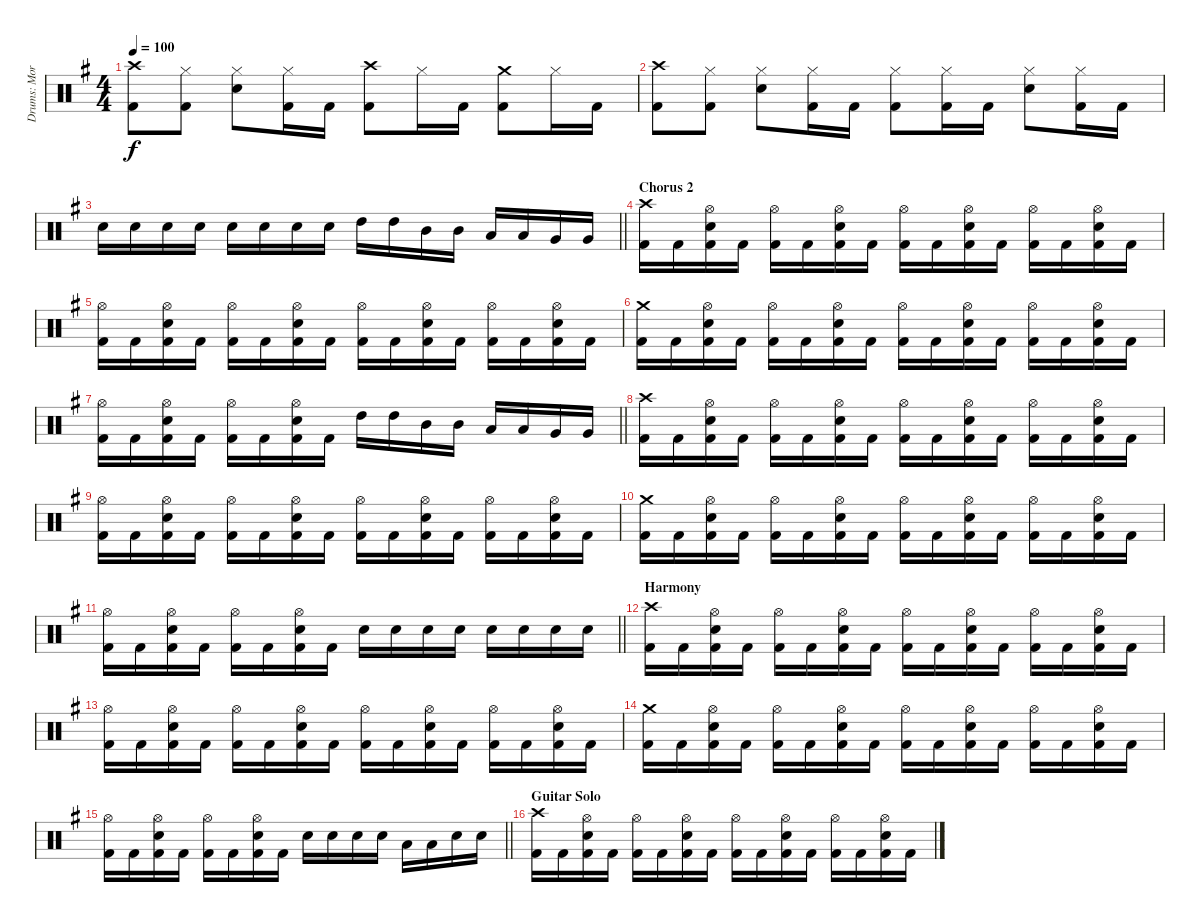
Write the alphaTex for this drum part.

\track ("Drums: Morten Færøvig" "Drums: Mor") {instrument percussion}
\staff {score}
\articulation defaults
\ts (4 4)
\tempo 100
\clef neutral
\ks eminor
("Crash high (hit)" "Kick (hit) 2").8{dy f} ("Hi-Hat (closed)" "Kick (hit) 2").8 ("Hi-Hat (closed)" "Electric Snare (hit)").8 ("Hi-Hat (closed)" "Kick (hit) 2").16 "Kick (hit) 2".16 ("Crash high (hit)" "Kick (hit) 2").8 "Hi-Hat (closed)".16 "Kick (hit) 2".16 ("Crash medium (hit)" "Kick (hit) 2").8 "Hi-Hat (closed)".16 "Kick (hit) 2".16 |
("Crash high (hit)" "Kick (hit) 2").8 ("Hi-Hat (closed)" "Kick (hit) 2").8 ("Hi-Hat (closed)" "Electric Snare (hit)").8 ("Hi-Hat (closed)" "Kick (hit) 2").16 "Kick (hit) 2".16 ("Hi-Hat (closed)" "Kick (hit) 2").8 ("Hi-Hat (closed)" "Kick (hit) 2").16 "Kick (hit) 2".16 ("Hi-Hat (closed)" "Electric Snare (hit)").8 ("Hi-Hat (closed)" "Kick (hit) 2").16 "Kick (hit) 2".16 |
\barLineRight lightlight "Electric Snare (hit)".16 "Electric Snare (hit)".16 "Electric Snare (hit)".16 "Electric Snare (hit)".16 "Electric Snare (hit)".16 "Electric Snare (hit)".16 "Electric Snare (hit)".16 "Electric Snare (hit)".16 "High Tom (hit)".16 "High Tom (hit)".16 "Mid Tom (hit)".16 "Mid Tom (hit)".16 "Low Tom (hit)".16 "Low Tom (hit)".16 "Very Low Tom (hit)".16 "Very Low Tom (hit)".16
|
\section ("" "Chorus 2")
("Crash high (hit)" "Kick (hit) 2").16 "Kick (hit) 2".16 ("Hi-Hat (open)" "Electric Snare (hit)" "Kick (hit) 2").16 "Kick (hit) 2".16 ("Hi-Hat (open)" "Kick (hit) 2").16 "Kick (hit) 2".16 ("Hi-Hat (open)" "Electric Snare (hit)" "Kick (hit) 2").16 "Kick (hit) 2".16 ("Hi-Hat (open)" "Kick (hit) 2").16 "Kick (hit) 2".16 ("Hi-Hat (open)" "Electric Snare (hit)" "Kick (hit) 2").16 "Kick (hit) 2".16 ("Hi-Hat (open)" "Kick (hit) 2").16 "Kick (hit) 2".16 ("Hi-Hat (open)" "Electric Snare (hit)" "Kick (hit) 2").16 "Kick (hit) 2".16 |
("Hi-Hat (open)" "Kick (hit) 2").16 "Kick (hit) 2".16 ("Hi-Hat (open)" "Electric Snare (hit)" "Kick (hit) 2").16 "Kick (hit) 2".16 ("Hi-Hat (open)" "Kick (hit) 2").16 "Kick (hit) 2".16 ("Hi-Hat (open)" "Electric Snare (hit)" "Kick (hit) 2").16 "Kick (hit) 2".16 ("Hi-Hat (open)" "Kick (hit) 2").16 "Kick (hit) 2".16 ("Hi-Hat (open)" "Electric Snare (hit)" "Kick (hit) 2").16 "Kick (hit) 2".16 ("Hi-Hat (open)" "Kick (hit) 2").16 "Kick (hit) 2".16 ("Hi-Hat (open)" "Electric Snare (hit)" "Kick (hit) 2").16 "Kick (hit) 2".16 |
("Crash medium (hit)" "Kick (hit) 2").16 "Kick (hit) 2".16 ("Hi-Hat (open)" "Electric Snare (hit)" "Kick (hit) 2").16 "Kick (hit) 2".16 ("Hi-Hat (open)" "Kick (hit) 2").16 "Kick (hit) 2".16 ("Hi-Hat (open)" "Electric Snare (hit)" "Kick (hit) 2").16 "Kick (hit) 2".16 ("Hi-Hat (open)" "Kick (hit) 2").16 "Kick (hit) 2".16 ("Hi-Hat (open)" "Electric Snare (hit)" "Kick (hit) 2").16 "Kick (hit) 2".16 ("Hi-Hat (open)" "Kick (hit) 2").16 "Kick (hit) 2".16 ("Hi-Hat (open)" "Electric Snare (hit)" "Kick (hit) 2").16 "Kick (hit) 2".16 |
\barLineRight lightlight
("Hi-Hat (open)" "Kick (hit) 2").16 "Kick (hit) 2".16 ("Hi-Hat (open)" "Electric Snare (hit)" "Kick (hit) 2").16 "Kick (hit) 2".16 ("Hi-Hat (open)" "Kick (hit) 2").16 "Kick (hit) 2".16 ("Hi-Hat (open)" "Electric Snare (hit)" "Kick (hit) 2").16 "Kick (hit) 2".16 "High Tom (hit)".16 "High Tom (hit)".16 "Mid Tom (hit)".16 "Mid Tom (hit)".16 "Low Tom (hit)".16 "Low Tom (hit)".16 "Very Low Tom (hit)".16 "Very Low Tom (hit)".16 |
("Crash high (hit)" "Kick (hit) 2").16 "Kick (hit) 2".16 ("Hi-Hat (open)" "Electric Snare (hit)" "Kick (hit) 2").16 "Kick (hit) 2".16 ("Hi-Hat (open)" "Kick (hit) 2").16 "Kick (hit) 2".16 ("Hi-Hat (open)" "Electric Snare (hit)" "Kick (hit) 2").16 "Kick (hit) 2".16 ("Hi-Hat (open)" "Kick (hit) 2").16 "Kick (hit) 2".16 ("Hi-Hat (open)" "Electric Snare (hit)" "Kick (hit) 2").16 "Kick (hit) 2".16 ("Hi-Hat (open)" "Kick (hit) 2").16 "Kick (hit) 2".16 ("Hi-Hat (open)" "Electric Snare (hit)" "Kick (hit) 2").16 "Kick (hit) 2".16 |
("Hi-Hat (open)" "Kick (hit) 2").16 "Kick (hit) 2".16 ("Hi-Hat (open)" "Electric Snare (hit)" "Kick (hit) 2").16 "Kick (hit) 2".16 ("Hi-Hat (open)" "Kick (hit) 2").16 "Kick (hit) 2".16 ("Hi-Hat (open)" "Electric Snare (hit)" "Kick (hit) 2").16 "Kick (hit) 2".16 ("Hi-Hat (open)" "Kick (hit) 2").16 "Kick (hit) 2".16 ("Hi-Hat (open)" "Electric Snare (hit)" "Kick (hit) 2").16 "Kick (hit) 2".16 ("Hi-Hat (open)" "Kick (hit) 2").16 "Kick (hit) 2".16 ("Hi-Hat (open)" "Electric Snare (hit)" "Kick (hit) 2").16 "Kick (hit) 2".16 |
("Crash medium (hit)" "Kick (hit) 2").16 "Kick (hit) 2".16 ("Hi-Hat (open)" "Electric Snare (hit)" "Kick (hit) 2").16 "Kick (hit) 2".16 ("Hi-Hat (open)" "Kick (hit) 2").16 "Kick (hit) 2".16 ("Hi-Hat (open)" "Electric Snare (hit)" "Kick (hit) 2").16 "Kick (hit) 2".16 ("Hi-Hat (open)" "Kick (hit) 2").16 "Kick (hit) 2".16 ("Hi-Hat (open)" "Electric Snare (hit)" "Kick (hit) 2").16 "Kick (hit) 2".16 ("Hi-Hat (open)" "Kick (hit) 2").16 "Kick (hit) 2".16 ("Hi-Hat (open)" "Electric Snare (hit)" "Kick (hit) 2").16 "Kick (hit) 2".16 |
\barLineRight lightlight
("Hi-Hat (open)" "Kick (hit) 2").16 "Kick (hit) 2".16 ("Hi-Hat (open)" "Electric Snare (hit)" "Kick (hit) 2").16 "Kick (hit) 2".16 ("Hi-Hat (open)" "Kick (hit) 2").16 "Kick (hit) 2".16 ("Hi-Hat (open)" "Electric Snare (hit)" "Kick (hit) 2").16 "Kick (hit) 2".16 "Electric Snare (hit)".16 "Electric Snare (hit)".16 "Electric Snare (hit)".16 "Electric Snare (hit)".16 "Electric Snare (hit)".16 "Electric Snare (hit)".16 "Electric Snare (hit)".16 "Electric Snare (hit)".16 |
\section ("" "Harmony")
("Crash high (hit)" "Kick (hit) 2").16 "Kick (hit) 2".16 ("Hi-Hat (open)" "Electric Snare (hit)" "Kick (hit) 2").16 "Kick (hit) 2".16 ("Hi-Hat (open)" "Kick (hit) 2").16 "Kick (hit) 2".16 ("Hi-Hat (open)" "Electric Snare (hit)" "Kick (hit) 2").16 "Kick (hit) 2".16 ("Hi-Hat (open)" "Kick (hit) 2").16 "Kick (hit) 2".16 ("Hi-Hat (open)" "Electric Snare (hit)" "Kick (hit) 2").16 "Kick (hit) 2".16 ("Hi-Hat (open)" "Kick (hit) 2").16 "Kick (hit) 2".16 ("Hi-Hat (open)" "Electric Snare (hit)" "Kick (hit) 2").16 "Kick (hit) 2".16 |
("Hi-Hat (open)" "Kick (hit) 2").16 "Kick (hit) 2".16 ("Hi-Hat (open)" "Electric Snare (hit)" "Kick (hit) 2").16 "Kick (hit) 2".16 ("Hi-Hat (open)" "Kick (hit) 2").16 "Kick (hit) 2".16 ("Hi-Hat (open)" "Electric Snare (hit)" "Kick (hit) 2").16 "Kick (hit) 2".16 ("Hi-Hat (open)" "Kick (hit) 2").16 "Kick (hit) 2".16 ("Hi-Hat (open)" "Electric Snare (hit)" "Kick (hit) 2").16 "Kick (hit) 2".16 ("Hi-Hat (open)" "Kick (hit) 2").16 "Kick (hit) 2".16 ("Hi-Hat (open)" "Electric Snare (hit)" "Kick (hit) 2").16 "Kick (hit) 2".16 |
("Crash medium (hit)" "Kick (hit) 2").16 "Kick (hit) 2".16 ("Hi-Hat (open)" "Electric Snare (hit)" "Kick (hit) 2").16 "Kick (hit) 2".16 ("Hi-Hat (open)" "Kick (hit) 2").16 "Kick (hit) 2".16 ("Hi-Hat (open)" "Electric Snare (hit)" "Kick (hit) 2").16 "Kick (hit) 2".16 ("Hi-Hat (open)" "Kick (hit) 2").16 "Kick (hit) 2".16 ("Hi-Hat (open)" "Electric Snare (hit)" "Kick (hit) 2").16 "Kick (hit) 2".16 ("Hi-Hat (open)" "Kick (hit) 2").16 "Kick (hit) 2".16 ("Hi-Hat (open)" "Electric Snare (hit)" "Kick (hit) 2").16 "Kick (hit) 2".16 |
\barLineRight lightlight
("Hi-Hat (open)" "Kick (hit) 2").16 "Kick (hit) 2".16 ("Hi-Hat (open)" "Electric Snare (hit)" "Kick (hit) 2").16 "Kick (hit) 2".16 ("Hi-Hat (open)" "Kick (hit) 2").16 "Kick (hit) 2".16 ("Hi-Hat (open)" "Electric Snare (hit)" "Kick (hit) 2").16 "Kick (hit) 2".16 "Electric Snare (hit)".16 "Electric Snare (hit)".16 "Electric Snare (hit)".16 "Electric Snare (hit)".16 "Low Tom (hit)".16 "Low Tom (hit)".16 "Electric Snare (hit)".16 "Electric Snare (hit)".16 |
\section ("" "Guitar Solo")
("Crash high (hit)" "Kick (hit) 2").16 "Kick (hit) 2".16 ("Hi-Hat (open)" "Electric Snare (hit)" "Kick (hit) 2").16 "Kick (hit) 2".16 ("Hi-Hat (open)" "Kick (hit) 2").16 "Kick (hit) 2".16 ("Hi-Hat (open)" "Electric Snare (hit)" "Kick (hit) 2").16 "Kick (hit) 2".16 ("Hi-Hat (open)" "Kick (hit) 2").16 "Kick (hit) 2".16 ("Hi-Hat (open)" "Electric Snare (hit)" "Kick (hit) 2").16 "Kick (hit) 2".16 ("Hi-Hat (open)" "Kick (hit) 2").16 "Kick (hit) 2".16 ("Hi-Hat (open)" "Electric Snare (hit)" "Kick (hit) 2").16 "Kick (hit) 2".16
